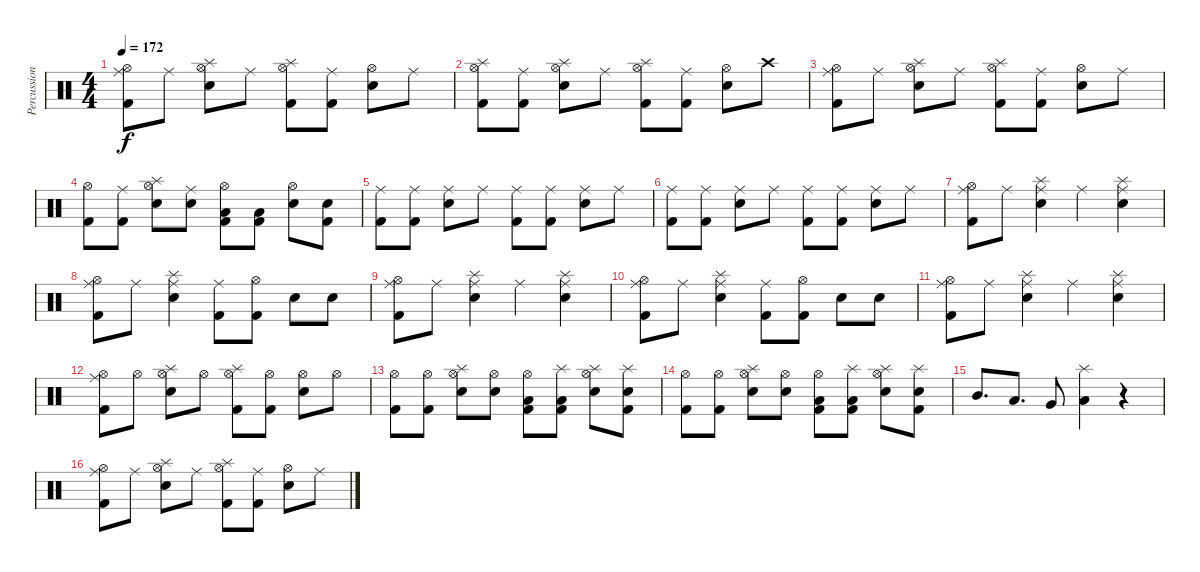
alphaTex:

\track ("Percussion" "Percussion") {instrument percussion}
\staff {score}
\articulation defaults
\ts (4 4)
\tempo 172
\clef neutral
\ks c
("Hi-Hat (open)" "Ride (middle)" "Kick (hit) 2").8{dy f} "Ride (middle)".8 ("Hi-Hat (open)" "Splash (hit)" "Electric Snare (hit)").8 "Ride (middle)".8 ("Hi-Hat (open)" "Splash (hit)" "Kick (hit) 2").8 ("Ride (middle)" "Kick (hit) 2").8 ("Hi-Hat (open)" "Electric Snare (hit)").8 "Ride (middle)".8 |
("Hi-Hat (open)" "Splash (hit)" "Kick (hit) 2").8 ("Ride (middle)" "Kick (hit) 2").8 ("Hi-Hat (open)" "Splash (hit)" "Electric Snare (hit)").8 "Ride (middle)".8 ("Hi-Hat (open)" "Splash (hit)" "Kick (hit) 2").8 ("Ride (middle)" "Kick (hit) 2").8 ("Hi-Hat (open)" "Electric Snare (hit)").8 "Crash high (hit)".8 |
("Hi-Hat (open)" "Ride (middle)" "Kick (hit) 2").8 "Ride (middle)".8 ("Hi-Hat (open)" "Splash (hit)" "Electric Snare (hit)").8 "Ride (middle)".8 ("Hi-Hat (open)" "Splash (hit)" "Kick (hit) 2").8 ("Ride (middle)" "Kick (hit) 2").8 ("Hi-Hat (open)" "Electric Snare (hit)").8 "Ride (middle)".8 |
("Hi-Hat (open)" "Kick (hit) 2").8 ("Ride (middle)" "Kick (hit) 2").8 ("Hi-Hat (open)" "Splash (hit)" "Electric Snare (hit)").8 ("Ride (middle)" "Electric Snare (hit)").8 ("Hi-Hat (open)" "Kick (hit) 2" "Low Floor Tom (hit)").8 ("Kick (hit) 2" "Low Floor Tom (hit)").8 ("Hi-Hat (open)" "Snare (hit) 2").8 ("Electric Snare (hit)" "Kick (hit) 2").8 |
("Ride (middle)" "Kick (hit) 2").8 ("Ride (middle)" "Kick (hit) 2").8 ("Ride (middle)" "Electric Snare (hit)").8 "Ride (middle)".8 ("Ride (middle)" "Kick (hit) 2").8 ("Ride (middle)" "Kick (hit) 2").8 ("Ride (middle)" "Electric Snare (hit)").8 "Ride (middle)".8 |
("Ride (middle)" "Kick (hit) 2").8 ("Ride (middle)" "Kick (hit) 2").8 ("Ride (middle)" "Electric Snare (hit)").8 "Ride (middle)".8 ("Ride (middle)" "Kick (hit) 2").8 ("Ride (middle)" "Kick (hit) 2").8 ("Ride (middle)" "Electric Snare (hit)").8 "Ride (middle)".8 |
("Hi-Hat (open)" "Ride (middle)" "Kick (hit) 2").8 "Ride (middle)".8 ("Ride (middle)" "Splash (hit)" "Electric Snare (hit)").4 "Ride (middle)".4 ("Ride (middle)" "Splash (hit)" "Electric Snare (hit)").4 |
("Hi-Hat (open)" "Ride (middle)" "Kick (hit) 2").8 "Ride (middle)".8 ("Ride (middle)" "Splash (hit)" "Electric Snare (hit)").4 ("Ride (middle)" "Kick (hit) 2").8 ("Hi-Hat (open)" "Kick (hit) 2").8 "Electric Snare (hit)".8 "Snare (hit) 2".8 |
("Hi-Hat (open)" "Ride (middle)" "Kick (hit) 2").8 "Ride (middle)".8 ("Ride (middle)" "Splash (hit)" "Electric Snare (hit)").4 "Ride (middle)".4 ("Ride (middle)" "Splash (hit)" "Electric Snare (hit)").4 |
("Hi-Hat (open)" "Ride (middle)" "Kick (hit) 2").8 "Ride (middle)".8 ("Ride (middle)" "Splash (hit)" "Electric Snare (hit)").4 ("Ride (middle)" "Kick (hit) 2").8 ("Hi-Hat (open)" "Kick (hit) 2").8 "Electric Snare (hit)".8 "Snare (hit) 2".8 |
("Hi-Hat (open)" "Ride (middle)" "Kick (hit) 2").8 "Ride (middle)".8 ("Ride (middle)" "Splash (hit)" "Electric Snare (hit)").4 "Ride (middle)".4 ("Ride (middle)" "Splash (hit)" "Electric Snare (hit)").4 |
("Hi-Hat (open)" "Ride (middle)" "Kick (hit) 2").8 "Hi-Hat (open)".8 ("Hi-Hat (open)" "Splash (hit)" "Electric Snare (hit)").8 "Hi-Hat (open)".8 ("Hi-Hat (open)" "Splash (hit)" "Kick (hit) 2").8 ("Hi-Hat (open)" "Kick (hit) 2").8 ("Hi-Hat (open)" "Electric Snare (hit)").8 "Hi-Hat (open)".8 |
("Hi-Hat (open)" "Kick (hit) 2").8 ("Hi-Hat (open)" "Kick (hit) 2").8 ("Hi-Hat (open)" "Splash (hit)" "Electric Snare (hit)").8 ("Hi-Hat (open)" "Electric Snare (hit)").8 ("Hi-Hat (open)" "Kick (hit) 2" "Low Floor Tom (hit)").8 ("Splash (hit)" "Kick (hit) 2" "Low Floor Tom (hit)").8 ("Splash (hit)" "Hi-Hat (open)" "Snare (hit) 2").8 ("Splash (hit)" "Electric Snare (hit)" "Kick (hit) 2").8 |
("Hi-Hat (open)" "Kick (hit) 2").8 ("Hi-Hat (open)" "Kick (hit) 2").8 ("Hi-Hat (open)" "Splash (hit)" "Electric Snare (hit)").8 ("Hi-Hat (open)" "Electric Snare (hit)").8 ("Hi-Hat (open)" "Kick (hit) 2" "Low Floor Tom (hit)").8 ("Splash (hit)" "Kick (hit) 2" "Low Floor Tom (hit)").8 ("Splash (hit)" "Hi-Hat (open)" "Snare (hit) 2").8 ("Splash (hit)" "Electric Snare (hit)" "Kick (hit) 2").8 |
"Mid Tom (hit)".8{d} "Low Tom (hit)".8{d} "Very Low Tom (hit)".8 ("Splash (hit)" "Low Floor Tom (hit)").4 r.4 |
("Hi-Hat (open)" "Ride (middle)" "Kick (hit) 2").8 "Ride (middle)".8 ("Hi-Hat (open)" "Splash (hit)" "Electric Snare (hit)").8 "Ride (middle)".8 ("Hi-Hat (open)" "Splash (hit)" "Kick (hit) 2").8 ("Ride (middle)" "Kick (hit) 2").8 ("Hi-Hat (open)" "Electric Snare (hit)").8 "Ride (middle)".8
